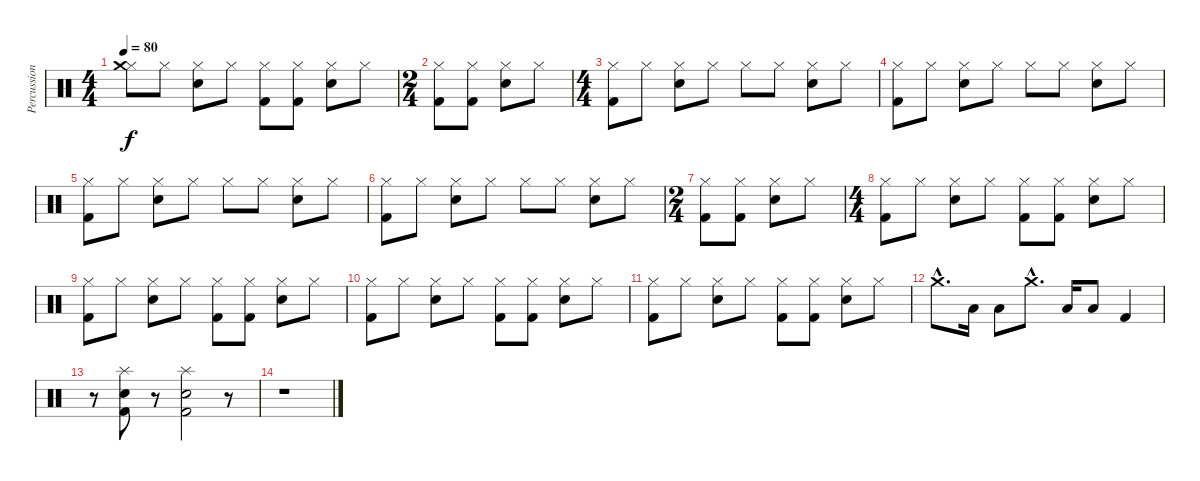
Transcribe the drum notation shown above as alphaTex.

\track ("Percussion" "Percussion") {instrument percussion}
\staff {score}
\articulation defaults
\ts (4 4)
\tempo 80
\clef neutral
\ks c
("Hi-Hat (closed)" "Crash medium (hit)").8{dy f} "Hi-Hat (closed)".8 ("Hi-Hat (closed)" "Snare (hit) 2").8 "Hi-Hat (closed)".8 ("Hi-Hat (closed)" "Kick (hit) 2").8 ("Hi-Hat (closed)" "Kick (hit) 2").8 ("Hi-Hat (closed)" "Snare (hit) 2").8 "Hi-Hat (closed)".8 |
\ts (2 4)
("Hi-Hat (closed)" "Kick (hit) 2").8 ("Hi-Hat (closed)" "Kick (hit) 2").8 ("Hi-Hat (closed)" "Snare (hit) 2").8 "Hi-Hat (closed)".8 |
\ts (4 4)
("Hi-Hat (closed)" "Kick (hit) 2").8 "Hi-Hat (closed)".8 ("Hi-Hat (closed)" "Snare (hit) 2").8 "Hi-Hat (closed)".8 "Hi-Hat (closed)".8 "Hi-Hat (closed)".8 ("Hi-Hat (closed)" "Snare (hit) 2").8 "Hi-Hat (closed)".8 |
("Hi-Hat (closed)" "Kick (hit) 2").8 "Hi-Hat (closed)".8 ("Hi-Hat (closed)" "Snare (hit) 2").8 "Hi-Hat (closed)".8 "Hi-Hat (closed)".8 "Hi-Hat (closed)".8 ("Hi-Hat (closed)" "Snare (hit) 2").8 "Hi-Hat (closed)".8 |
("Hi-Hat (closed)" "Kick (hit) 2").8 "Hi-Hat (closed)".8 ("Hi-Hat (closed)" "Snare (hit) 2").8 "Hi-Hat (closed)".8 "Hi-Hat (closed)".8 "Hi-Hat (closed)".8 ("Hi-Hat (closed)" "Snare (hit) 2").8 "Hi-Hat (closed)".8 |
("Hi-Hat (closed)" "Kick (hit) 2").8 "Hi-Hat (closed)".8 ("Hi-Hat (closed)" "Snare (hit) 2").8 "Hi-Hat (closed)".8 "Hi-Hat (closed)".8 "Hi-Hat (closed)".8 ("Hi-Hat (closed)" "Snare (hit) 2").8 "Hi-Hat (closed)".8 |
\ts (2 4)
("Hi-Hat (closed)" "Kick (hit) 2").8 ("Hi-Hat (closed)" "Kick (hit) 2").8 ("Hi-Hat (closed)" "Snare (hit) 2").8 "Hi-Hat (closed)".8 |
\ts (4 4)
("Hi-Hat (closed)" "Kick (hit) 2").8 "Hi-Hat (closed)".8 ("Hi-Hat (closed)" "Snare (hit) 2").8 "Hi-Hat (closed)".8 ("Hi-Hat (closed)" "Kick (hit) 2").8 ("Hi-Hat (closed)" "Kick (hit) 2").8 ("Hi-Hat (closed)" "Snare (hit) 2").8 "Hi-Hat (closed)".8 |
("Hi-Hat (closed)" "Kick (hit) 2").8 "Hi-Hat (closed)".8 ("Hi-Hat (closed)" "Snare (hit) 2").8 "Hi-Hat (closed)".8 ("Hi-Hat (closed)" "Kick (hit) 2").8 ("Hi-Hat (closed)" "Kick (hit) 2").8 ("Hi-Hat (closed)" "Snare (hit) 2").8 "Hi-Hat (closed)".8 |
("Hi-Hat (closed)" "Kick (hit) 2").8 "Hi-Hat (closed)".8 ("Hi-Hat (closed)" "Snare (hit) 2").8 "Hi-Hat (closed)".8 ("Hi-Hat (closed)" "Kick (hit) 2").8 ("Hi-Hat (closed)" "Kick (hit) 2").8 ("Hi-Hat (closed)" "Snare (hit) 2").8 "Hi-Hat (closed)".8 |
("Hi-Hat (closed)" "Kick (hit) 2").8 "Hi-Hat (closed)".8 ("Hi-Hat (closed)" "Snare (hit) 2").8 "Hi-Hat (closed)".8 ("Hi-Hat (closed)" "Kick (hit) 2").8 ("Hi-Hat (closed)" "Kick (hit) 2").8 ("Hi-Hat (closed)" "Snare (hit) 2").8 "Hi-Hat (closed)".8 |
"Crash medium (hit)"{hac}.8{d} "Low Tom (hit)".16 "Low Tom (hit)".8 "Crash medium (hit)"{hac}.8{d} "Low Tom (hit)".16 "Low Tom (hit)".8 "Kick (hit) 2".4 |
r.8 ("Splash (hit)" "Snare (hit) 2" "Kick (hit) 2").8 r.8 ("Splash (hit)" "Snare (hit) 2" "Kick (hit) 2").2 r.8 |
r.1
